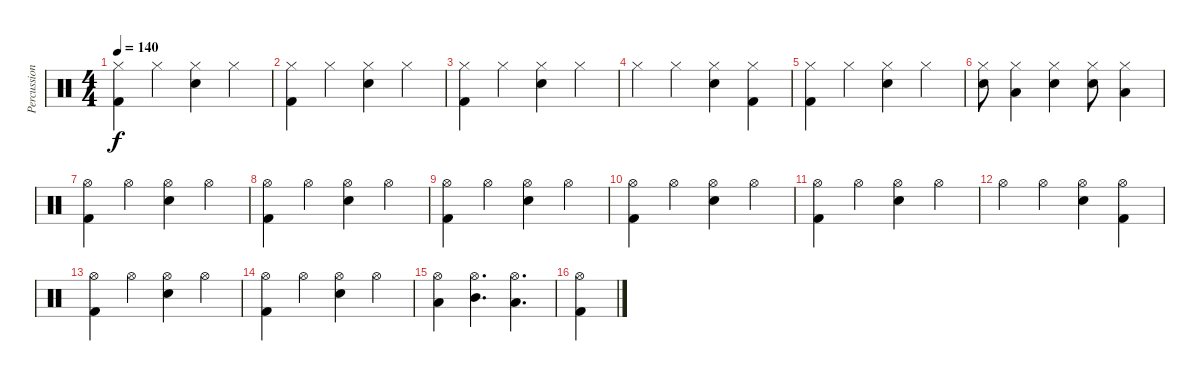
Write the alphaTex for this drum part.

\track ("Percussions" "Percussion") {instrument percussion}
\staff {score}
\articulation defaults
\ts (4 4)
\tempo 140
\clef neutral
\ks c
("Hi-Hat (closed)" "Kick (hit) 2").4{dy f} "Hi-Hat (closed)".4 ("Hi-Hat (closed)" "Electric Snare (hit)").4 "Hi-Hat (closed)".4 |
("Hi-Hat (closed)" "Kick (hit) 2").4 "Hi-Hat (closed)".4 ("Hi-Hat (closed)" "Electric Snare (hit)").4 "Hi-Hat (closed)".4 |
("Hi-Hat (closed)" "Kick (hit) 2").4 "Hi-Hat (closed)".4 ("Hi-Hat (closed)" "Electric Snare (hit)").4 "Hi-Hat (closed)".4 |
"Hi-Hat (closed)".4 "Hi-Hat (closed)".4 ("Hi-Hat (closed)" "Electric Snare (hit)").4 ("Hi-Hat (closed)" "Kick (hit) 2").4 |
("Hi-Hat (closed)" "Kick (hit) 2").4 "Hi-Hat (closed)".4 ("Hi-Hat (closed)" "Electric Snare (hit)").4 "Hi-Hat (closed)".4 |
("Hi-Hat (closed)" "Electric Snare (hit)").8 ("Hi-Hat (closed)" "Low Floor Tom (hit)").4 ("Hi-Hat (closed)" "Electric Snare (hit)").4 ("Hi-Hat (closed)" "Electric Snare (hit)").8 ("Hi-Hat (closed)" "Low Floor Tom (hit)").4 |
("Hi-Hat (open)" "Kick (hit) 2").4 "Hi-Hat (open)".4 ("Hi-Hat (open)" "Electric Snare (hit)").4 "Hi-Hat (open)".4 |
("Hi-Hat (open)" "Kick (hit) 2").4 "Hi-Hat (open)".4 ("Hi-Hat (open)" "Electric Snare (hit)").4 "Hi-Hat (open)".4 |
("Hi-Hat (open)" "Kick (hit) 2").4 "Hi-Hat (open)".4 ("Hi-Hat (open)" "Electric Snare (hit)").4 "Hi-Hat (open)".4 |
("Hi-Hat (open)" "Kick (hit) 2").4 "Hi-Hat (open)".4 ("Hi-Hat (open)" "Electric Snare (hit)").4 "Hi-Hat (open)".4 |
("Hi-Hat (open)" "Kick (hit) 2").4 "Hi-Hat (open)".4 ("Hi-Hat (open)" "Electric Snare (hit)").4 "Hi-Hat (open)".4 |
"Hi-Hat (open)".4 "Hi-Hat (open)".4 ("Hi-Hat (open)" "Electric Snare (hit)").4 ("Hi-Hat (open)" "Kick (hit) 2").4 |
("Hi-Hat (open)" "Kick (hit) 2").4 "Hi-Hat (open)".4 ("Hi-Hat (open)" "Electric Snare (hit)").4 "Hi-Hat (open)".4 |
("Hi-Hat (open)" "Kick (hit) 2").4 "Hi-Hat (open)".4 ("Hi-Hat (open)" "Electric Snare (hit)").4 "Hi-Hat (open)".4 |
("Hi-Hat (open)" "Low Floor Tom (hit)").4 ("Hi-Hat (open)" "Mid Tom (hit)").4{d} ("Hi-Hat (open)" "Low Floor Tom (hit)").4{d} |
("Hi-Hat (open)" "Kick (hit) 2").4
